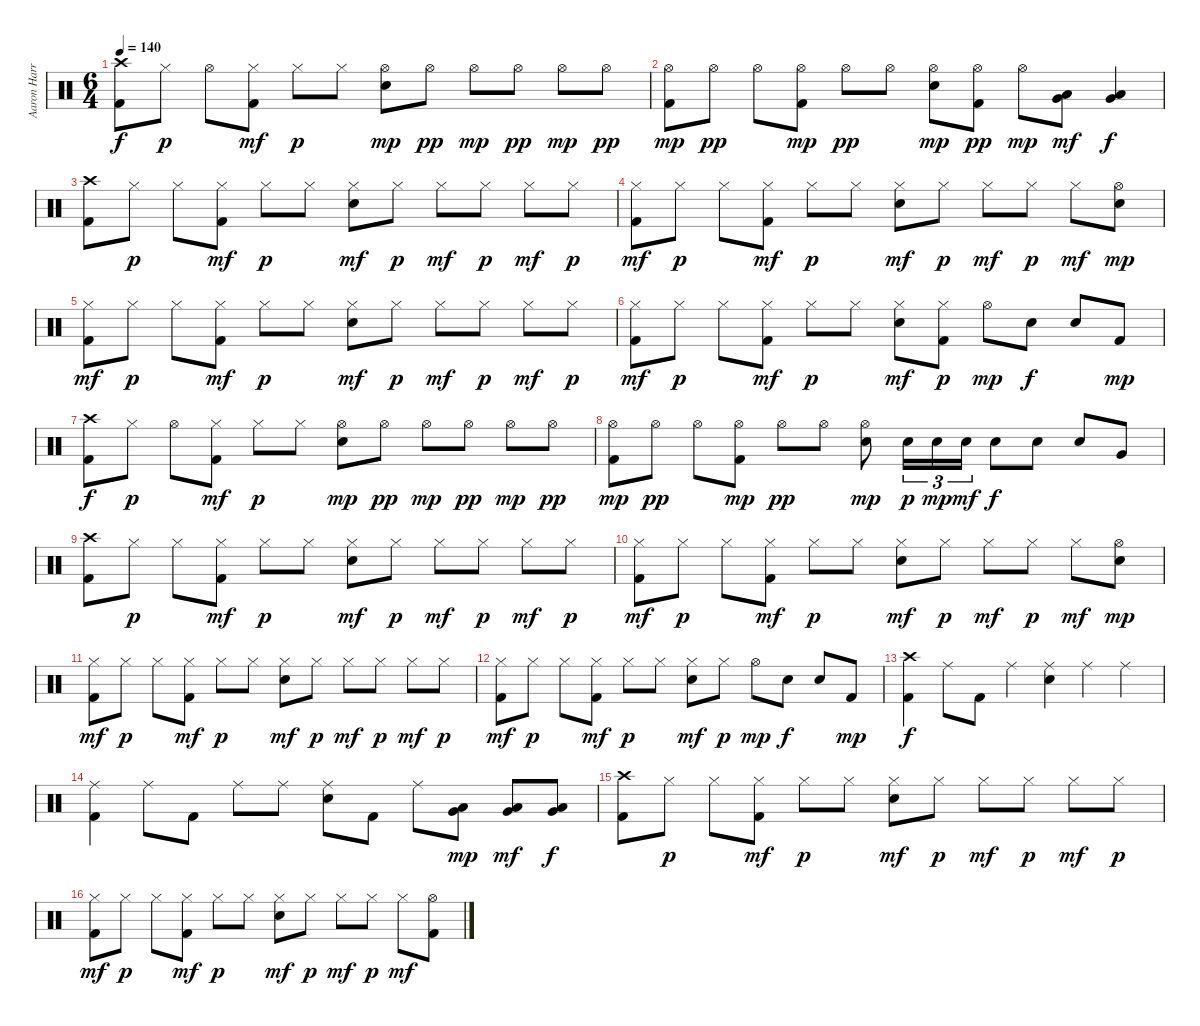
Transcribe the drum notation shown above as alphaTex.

\track ("Aaron Harris" "Aaron Harr") {instrument percussion}
\staff {score}
\articulation defaults
\ts (6 4)
\tempo 140
\clef neutral
\ks c
("Crash high (hit)" "Kick (hit) 2").8{dy f} "Hi-Hat (closed)".8{dy p} "Hi-Hat (open)".8 ("Hi-Hat (closed)" "Kick (hit) 2").8{dy mf} "Hi-Hat (closed)".8{dy p} "Hi-Hat (closed)".8 ("Hi-Hat (open)" "Electric Snare (hit)").8{dy mp} "Hi-Hat (open)".8{dy pp} "Hi-Hat (open)".8{dy mp} "Hi-Hat (open)".8{dy pp} "Hi-Hat (open)".8{dy mp} "Hi-Hat (open)".8{dy pp} |
("Hi-Hat (open)" "Kick (hit) 2").8{dy mp} "Hi-Hat (open)".8{dy pp} "Hi-Hat (open)".8 ("Hi-Hat (open)" "Kick (hit) 2").8{dy mp} "Hi-Hat (open)".8{dy pp} "Hi-Hat (open)".8 ("Hi-Hat (open)" "Electric Snare (hit)").8{dy mp} ("Hi-Hat (open)" "Kick (hit) 2").8{dy pp} "Hi-Hat (open)".8{dy mp} ("Low Tom (hit)" "Very Low Tom (hit)").8{dy mf} ("Low Tom (hit)" "Very Low Tom (hit)").4{dy f} |
("Crash high (hit)" "Kick (hit) 2").8 "Hi-Hat (closed)".8{dy p} "Hi-Hat (closed)".8 ("Hi-Hat (closed)" "Kick (hit) 2").8{dy mf} "Hi-Hat (closed)".8{dy p} "Hi-Hat (closed)".8 ("Hi-Hat (closed)" "Electric Snare (hit)").8{dy mf} "Hi-Hat (closed)".8{dy p} "Hi-Hat (closed)".8{dy mf} "Hi-Hat (closed)".8{dy p} "Hi-Hat (closed)".8{dy mf} "Hi-Hat (closed)".8{dy p} |
("Hi-Hat (closed)" "Kick (hit) 2").8{dy mf} "Hi-Hat (closed)".8{dy p} "Hi-Hat (closed)".8 ("Hi-Hat (closed)" "Kick (hit) 2").8{dy mf} "Hi-Hat (closed)".8{dy p} "Hi-Hat (closed)".8 ("Hi-Hat (closed)" "Electric Snare (hit)").8{dy mf} "Hi-Hat (closed)".8{dy p} "Hi-Hat (closed)".8{dy mf} "Hi-Hat (closed)".8{dy p} "Hi-Hat (closed)".8{dy mf} ("Hi-Hat (open)" "Electric Snare (hit)").8{dy mp} |
("Hi-Hat (closed)" "Kick (hit) 2").8{dy mf} "Hi-Hat (closed)".8{dy p} "Hi-Hat (closed)".8 ("Hi-Hat (closed)" "Kick (hit) 2").8{dy mf} "Hi-Hat (closed)".8{dy p} "Hi-Hat (closed)".8 ("Hi-Hat (closed)" "Electric Snare (hit)").8{dy mf} "Hi-Hat (closed)".8{dy p} "Hi-Hat (closed)".8{dy mf} "Hi-Hat (closed)".8{dy p} "Hi-Hat (closed)".8{dy mf} "Hi-Hat (closed)".8{dy p} |
("Hi-Hat (closed)" "Kick (hit) 2").8{dy mf} "Hi-Hat (closed)".8{dy p} "Hi-Hat (closed)".8 ("Hi-Hat (closed)" "Kick (hit) 2").8{dy mf} "Hi-Hat (closed)".8{dy p} "Hi-Hat (closed)".8 ("Hi-Hat (closed)" "Electric Snare (hit)").8{dy mf} ("Hi-Hat (closed)" "Kick (hit) 2").8{dy p} "Hi-Hat (open)".8{dy mp} "Electric Snare (hit)".8{dy f} "Electric Snare (hit)".8 "Kick (hit) 2".8{dy mp} |
("Crash high (hit)" "Kick (hit) 2").8{dy f} "Hi-Hat (closed)".8{dy p} "Hi-Hat (open)".8 ("Hi-Hat (closed)" "Kick (hit) 2").8{dy mf} "Hi-Hat (closed)".8{dy p} "Hi-Hat (closed)".8 ("Hi-Hat (open)" "Electric Snare (hit)").8{dy mp} "Hi-Hat (open)".8{dy pp} "Hi-Hat (open)".8{dy mp} "Hi-Hat (open)".8{dy pp} "Hi-Hat (open)".8{dy mp} "Hi-Hat (open)".8{dy pp} |
("Hi-Hat (open)" "Kick (hit) 2").8{dy mp} "Hi-Hat (open)".8{dy pp} "Hi-Hat (open)".8 ("Hi-Hat (open)" "Kick (hit) 2").8{dy mp} "Hi-Hat (open)".8{dy pp} "Hi-Hat (open)".8 ("Hi-Hat (open)" "Electric Snare (hit)").8{dy mp} "Electric Snare (hit)".16{tu (3 2) dy p} "Electric Snare (hit)".16{tu (3 2) dy mp} "Electric Snare (hit)".16{tu (3 2) dy mf} "Electric Snare (hit)".8{dy f} "Electric Snare (hit)".8 "Electric Snare (hit)".8 "Very Low Tom (hit)".8 |
("Crash high (hit)" "Kick (hit) 2").8 "Hi-Hat (closed)".8{dy p} "Hi-Hat (closed)".8 ("Hi-Hat (closed)" "Kick (hit) 2").8{dy mf} "Hi-Hat (closed)".8{dy p} "Hi-Hat (closed)".8 ("Hi-Hat (closed)" "Electric Snare (hit)").8{dy mf} "Hi-Hat (closed)".8{dy p} "Hi-Hat (closed)".8{dy mf} "Hi-Hat (closed)".8{dy p} "Hi-Hat (closed)".8{dy mf} "Hi-Hat (closed)".8{dy p} |
("Hi-Hat (closed)" "Kick (hit) 2").8{dy mf} "Hi-Hat (closed)".8{dy p} "Hi-Hat (closed)".8 ("Hi-Hat (closed)" "Kick (hit) 2").8{dy mf} "Hi-Hat (closed)".8{dy p} "Hi-Hat (closed)".8 ("Hi-Hat (closed)" "Electric Snare (hit)").8{dy mf} "Hi-Hat (closed)".8{dy p} "Hi-Hat (closed)".8{dy mf} "Hi-Hat (closed)".8{dy p} "Hi-Hat (closed)".8{dy mf} ("Hi-Hat (open)" "Electric Snare (hit)").8{dy mp} |
("Hi-Hat (closed)" "Kick (hit) 2").8{dy mf} "Hi-Hat (closed)".8{dy p} "Hi-Hat (closed)".8 ("Hi-Hat (closed)" "Kick (hit) 2").8{dy mf} "Hi-Hat (closed)".8{dy p} "Hi-Hat (closed)".8 ("Hi-Hat (closed)" "Electric Snare (hit)").8{dy mf} "Hi-Hat (closed)".8{dy p} "Hi-Hat (closed)".8{dy mf} "Hi-Hat (closed)".8{dy p} "Hi-Hat (closed)".8{dy mf} "Hi-Hat (closed)".8{dy p} |
("Hi-Hat (closed)" "Kick (hit) 2").8{dy mf} "Hi-Hat (closed)".8{dy p} "Hi-Hat (closed)".8 ("Hi-Hat (closed)" "Kick (hit) 2").8{dy mf} "Hi-Hat (closed)".8{dy p} "Hi-Hat (closed)".8 ("Hi-Hat (closed)" "Electric Snare (hit)").8{dy mf} "Hi-Hat (closed)".8{dy p} "Hi-Hat (open)".8{dy mp} "Electric Snare (hit)".8{dy f} "Electric Snare (hit)".8 "Kick (hit) 2".8{dy mp} |
("Crash high (hit)" "Kick (hit) 2").4{dy f} "Ride (middle)".8 "Kick (hit) 2".8 "Ride (middle)".4 ("Ride (middle)" "Electric Snare (hit)").4 "Ride (middle)".4 "Ride (middle)".4 |
("Ride (middle)" "Kick (hit) 2").4 "Ride (middle)".8 "Kick (hit) 2".8 "Ride (middle)".8 "Ride (middle)".8 ("Ride (middle)" "Electric Snare (hit)").8 "Kick (hit) 2".8 "Ride (middle)".8 ("Low Tom (hit)" "Very Low Tom (hit)").8{dy mp} ("Low Tom (hit)" "Very Low Tom (hit)").8{dy mf} ("Low Tom (hit)" "Very Low Tom (hit)").8{dy f} |
("Crash high (hit)" "Kick (hit) 2").8 "Hi-Hat (closed)".8{dy p} "Hi-Hat (closed)".8 ("Hi-Hat (closed)" "Kick (hit) 2").8{dy mf} "Hi-Hat (closed)".8{dy p} "Hi-Hat (closed)".8 ("Hi-Hat (closed)" "Electric Snare (hit)").8{dy mf} "Hi-Hat (closed)".8{dy p} "Hi-Hat (closed)".8{dy mf} "Hi-Hat (closed)".8{dy p} "Hi-Hat (closed)".8{dy mf} "Hi-Hat (closed)".8{dy p} |
("Hi-Hat (closed)" "Kick (hit) 2").8{dy mf} "Hi-Hat (closed)".8{dy p} "Hi-Hat (closed)".8 ("Hi-Hat (closed)" "Kick (hit) 2").8{dy mf} "Hi-Hat (closed)".8{dy p} "Hi-Hat (closed)".8 ("Hi-Hat (closed)" "Electric Snare (hit)").8{dy mf} "Hi-Hat (closed)".8{dy p} "Hi-Hat (closed)".8{dy mf} "Hi-Hat (closed)".8{dy p} "Hi-Hat (closed)".8{dy mf} ("Hi-Hat (open)" "Kick (hit) 2").8
